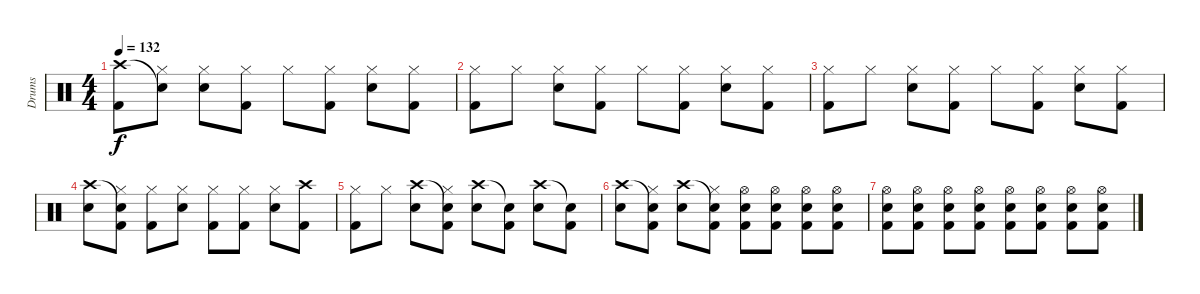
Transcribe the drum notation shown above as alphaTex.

\track ("Drums" "Drums") {instrument percussion}
\staff {score}
\articulation defaults
\ts (4 4)
\tempo 132
\clef neutral
\ks c
("Crash high (hit)" "Kick (hit) 2").8{dy f} ("Snare (hit)"{t} "Hi-Hat (closed)").8 ("Hi-Hat (closed)" "Snare (hit) 2").8 ("Hi-Hat (closed)" "Kick (hit) 2").8 "Hi-Hat (closed)".8 ("Hi-Hat (closed)" "Kick (hit) 2").8 ("Hi-Hat (closed)" "Snare (hit) 2").8 ("Hi-Hat (closed)" "Kick (hit) 2").8 |
("Hi-Hat (closed)" "Kick (hit) 2").8 "Hi-Hat (closed)".8 ("Hi-Hat (closed)" "Snare (hit) 2").8 ("Hi-Hat (closed)" "Kick (hit) 2").8 "Hi-Hat (closed)".8 ("Hi-Hat (closed)" "Kick (hit) 2").8 ("Hi-Hat (closed)" "Snare (hit) 2").8 ("Hi-Hat (closed)" "Kick (hit) 2").8 |
("Hi-Hat (closed)" "Kick (hit) 2").8 "Hi-Hat (closed)".8 ("Hi-Hat (closed)" "Snare (hit) 2").8 ("Hi-Hat (closed)" "Kick (hit) 2").8 "Hi-Hat (closed)".8 ("Hi-Hat (closed)" "Kick (hit) 2").8 ("Hi-Hat (closed)" "Snare (hit) 2").8 ("Hi-Hat (closed)" "Kick (hit) 2").8 |
("Crash high (hit)" "Snare (hit) 2").8 ("Snare (hit)"{t} "Hi-Hat (closed)" "Kick (hit) 2").8 ("Hi-Hat (closed)" "Kick (hit) 2").8 ("Hi-Hat (closed)" "Snare (hit) 2").8 ("Hi-Hat (closed)" "Kick (hit) 2").8 ("Hi-Hat (closed)" "Kick (hit) 2").8 ("Hi-Hat (closed)" "Snare (hit) 2").8 ("Crash high (hit)" "Kick (hit) 2").8 |
("Hi-Hat (closed)" "Kick (hit) 2").8 "Hi-Hat (closed)".8 ("Crash high (hit)" "Snare (hit) 2").8 ("Snare (hit)"{t} "Hi-Hat (closed)" "Kick (hit) 2").8 ("Crash high (hit)" "Snare (hit) 2").8 ("Snare (hit)"{t} "Kick (hit) 2").8 ("Crash high (hit)" "Snare (hit) 2").8 ("Snare (hit)"{t} "Kick (hit) 2").8 |
("Crash high (hit)" "Snare (hit) 2").8 ("Snare (hit)"{t} "Hi-Hat (closed)" "Kick (hit) 2").8 ("Crash high (hit)" "Snare (hit) 2").8 ("Snare (hit)"{t} "Hi-Hat (closed)" "Kick (hit) 2").8 ("Hi-Hat (open)" "Snare (hit) 2" "Kick (hit) 2").8 ("Hi-Hat (open)" "Snare (hit) 2" "Kick (hit) 2").8 ("Hi-Hat (open)" "Snare (hit) 2" "Kick (hit) 2").8 ("Hi-Hat (open)" "Snare (hit) 2" "Kick (hit) 2").8 |
("Hi-Hat (open)" "Snare (hit) 2" "Kick (hit) 2").8 ("Hi-Hat (open)" "Snare (hit) 2" "Kick (hit) 2").8 ("Hi-Hat (open)" "Snare (hit) 2" "Kick (hit) 2").8 ("Hi-Hat (open)" "Snare (hit) 2" "Kick (hit) 2").8 ("Hi-Hat (open)" "Snare (hit) 2" "Kick (hit) 2").8 ("Hi-Hat (open)" "Snare (hit) 2" "Kick (hit) 2").8 ("Hi-Hat (open)" "Snare (hit) 2" "Kick (hit) 2").8 ("Hi-Hat (open)" "Snare (hit) 2" "Kick (hit) 2").8
